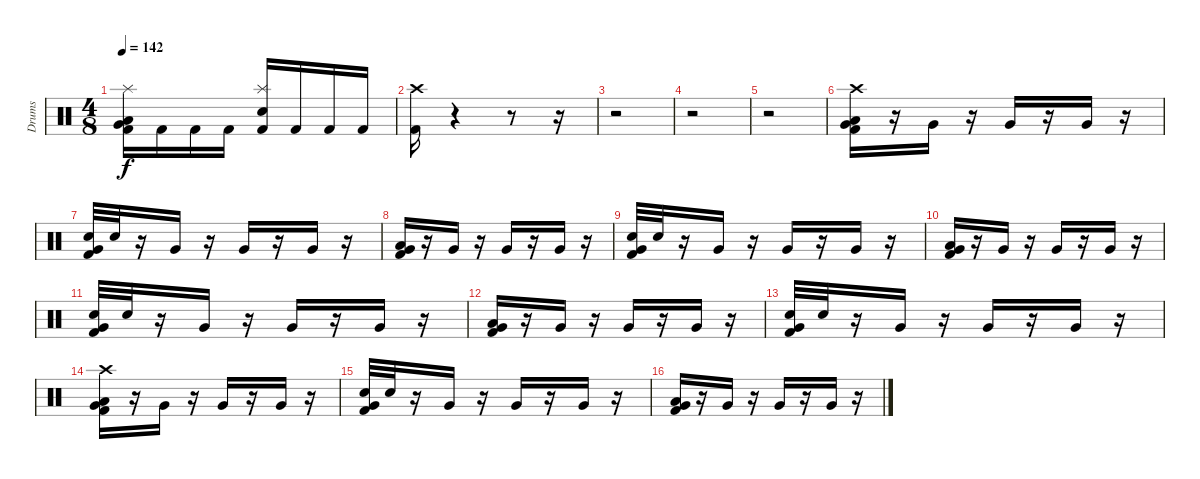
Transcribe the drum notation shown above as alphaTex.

\track ("Drums" "Drums") {instrument percussion}
\staff {score}
\articulation defaults
\ts (4 8)
\tempo 142
\clef neutral
\ks c
("Kick (hit) 2" "Low Floor Tom (hit)" "Very Low Tom (hit)" "Splash (hit)").16{dy f} "Kick (hit) 2".16 "Kick (hit) 2".16 "Kick (hit) 2".16 ("Kick (hit) 2" "Electric Snare (hit)" "Splash (hit)").16 "Kick (hit) 2".16 "Kick (hit) 2".16 "Kick (hit) 2".16 |
("Kick (hit) 2" "Crash high (hit)").16 r.4 r.8 r.16 |
r.2 |
r.2 |
r.2 |
("Very Low Tom (hit)" "Kick (hit) 2" "Crash high (hit)" "Low Floor Tom (hit)").16 r.16 "Very Low Tom (hit)".16 r.16 "Very Low Tom (hit)".16 r.16 "Very Low Tom (hit)".16 r.16 |
("Electric Snare (hit)" "Kick (hit) 2" "Very Low Tom (hit)").32 "Electric Snare (hit)".32 r.16 "Very Low Tom (hit)".16 r.16 "Very Low Tom (hit)".16 r.16 "Very Low Tom (hit)".16 r.16 |
("Low Floor Tom (hit)" "Kick (hit) 2" "Very Low Tom (hit)").16 r.16 "Very Low Tom (hit)".16 r.16 "Very Low Tom (hit)".16 r.16 "Very Low Tom (hit)".16 r.16 |
("Electric Snare (hit)" "Kick (hit) 2" "Very Low Tom (hit)").32 "Electric Snare (hit)".32 r.16 "Very Low Tom (hit)".16 r.16 "Very Low Tom (hit)".16 r.16 "Very Low Tom (hit)".16 r.16 |
("Very Low Tom (hit)" "Kick (hit) 2" "Low Floor Tom (hit)").16 r.16 "Very Low Tom (hit)".16 r.16 "Very Low Tom (hit)".16 r.16 "Very Low Tom (hit)".16 r.16 |
("Electric Snare (hit)" "Kick (hit) 2" "Very Low Tom (hit)").32 "Electric Snare (hit)".32 r.16 "Very Low Tom (hit)".16 r.16 "Very Low Tom (hit)".16 r.16 "Very Low Tom (hit)".16 r.16 |
("Low Floor Tom (hit)" "Kick (hit) 2" "Very Low Tom (hit)").16 r.16 "Very Low Tom (hit)".16 r.16 "Very Low Tom (hit)".16 r.16 "Very Low Tom (hit)".16 r.16 |
("Electric Snare (hit)" "Kick (hit) 2" "Very Low Tom (hit)").32 "Electric Snare (hit)".32 r.16 "Very Low Tom (hit)".16 r.16 "Very Low Tom (hit)".16 r.16 "Very Low Tom (hit)".16 r.16 |
("Very Low Tom (hit)" "Kick (hit) 2" "Crash high (hit)" "Low Floor Tom (hit)").16 r.16 "Very Low Tom (hit)".16 r.16 "Very Low Tom (hit)".16 r.16 "Very Low Tom (hit)".16 r.16 |
("Electric Snare (hit)" "Kick (hit) 2" "Very Low Tom (hit)").32 "Electric Snare (hit)".32 r.16 "Very Low Tom (hit)".16 r.16 "Very Low Tom (hit)".16 r.16 "Very Low Tom (hit)".16 r.16 |
("Low Floor Tom (hit)" "Kick (hit) 2" "Very Low Tom (hit)").16 r.16 "Very Low Tom (hit)".16 r.16 "Very Low Tom (hit)".16 r.16 "Very Low Tom (hit)".16 r.16
